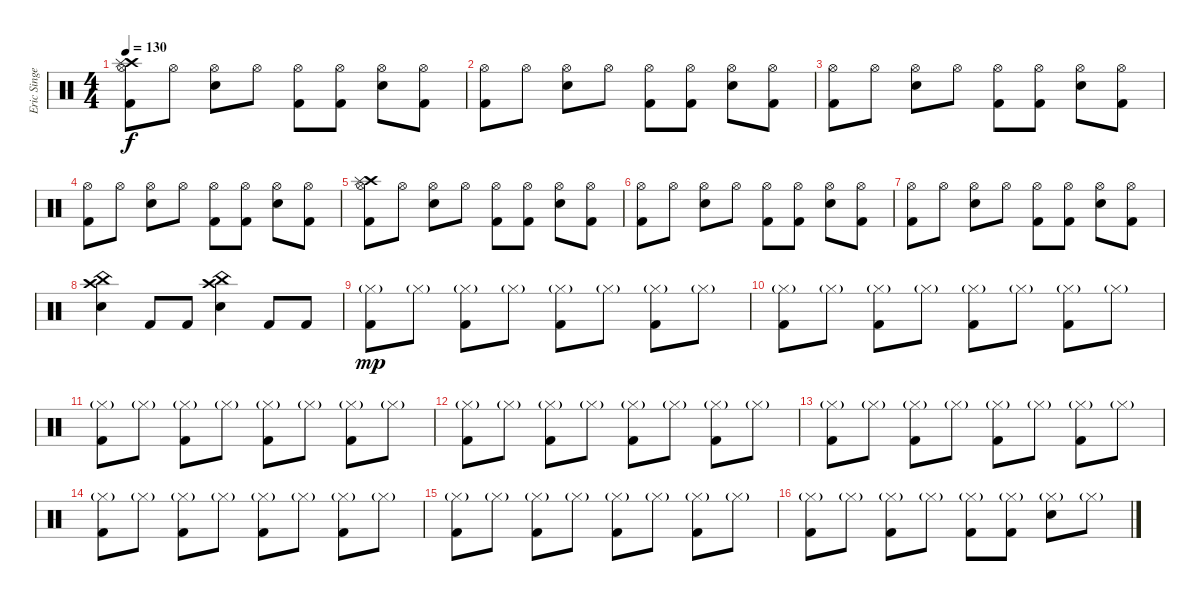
\track ("Eric Singer" "Eric Singe") {instrument percussion}
\staff {score}
\articulation defaults
\ts (4 4)
\tempo 130
\clef neutral
\ks c
("Kick (hit) 2" "Hi-Hat (open)" "Crash high (hit)" "Splash (hit)").8{dy f} "Hi-Hat (open)".8 ("Electric Snare (hit)" "Hi-Hat (open)").8 "Hi-Hat (open)".8 ("Kick (hit) 2" "Hi-Hat (open)").8 ("Kick (hit) 2" "Hi-Hat (open)").8 ("Electric Snare (hit)" "Hi-Hat (open)").8 ("Kick (hit) 2" "Hi-Hat (open)").8 |
("Kick (hit) 2" "Hi-Hat (open)").8 "Hi-Hat (open)".8 ("Electric Snare (hit)" "Hi-Hat (open)").8 "Hi-Hat (open)".8 ("Kick (hit) 2" "Hi-Hat (open)").8 ("Kick (hit) 2" "Hi-Hat (open)").8 ("Electric Snare (hit)" "Hi-Hat (open)").8 ("Kick (hit) 2" "Hi-Hat (open)").8 |
("Kick (hit) 2" "Hi-Hat (open)").8 "Hi-Hat (open)".8 ("Electric Snare (hit)" "Hi-Hat (open)").8 "Hi-Hat (open)".8 ("Kick (hit) 2" "Hi-Hat (open)").8 ("Kick (hit) 2" "Hi-Hat (open)").8 ("Electric Snare (hit)" "Hi-Hat (open)").8 ("Kick (hit) 2" "Hi-Hat (open)").8 |
("Kick (hit) 2" "Hi-Hat (open)").8 "Hi-Hat (open)".8 ("Electric Snare (hit)" "Hi-Hat (open)").8 "Hi-Hat (open)".8 ("Kick (hit) 2" "Hi-Hat (open)").8 ("Kick (hit) 2" "Hi-Hat (open)").8 ("Electric Snare (hit)" "Hi-Hat (open)").8 ("Kick (hit) 2" "Hi-Hat (open)").8 |
("Kick (hit) 2" "Hi-Hat (open)" "Crash high (hit)" "Splash (hit)").8 "Hi-Hat (open)".8 ("Electric Snare (hit)" "Hi-Hat (open)").8 "Hi-Hat (open)".8 ("Kick (hit) 2" "Hi-Hat (open)").8 ("Kick (hit) 2" "Hi-Hat (open)").8 ("Electric Snare (hit)" "Hi-Hat (open)").8 ("Kick (hit) 2" "Hi-Hat (open)").8 |
("Kick (hit) 2" "Hi-Hat (open)").8 "Hi-Hat (open)".8 ("Electric Snare (hit)" "Hi-Hat (open)").8 "Hi-Hat (open)".8 ("Kick (hit) 2" "Hi-Hat (open)").8 ("Kick (hit) 2" "Hi-Hat (open)").8 ("Electric Snare (hit)" "Hi-Hat (open)").8 ("Kick (hit) 2" "Hi-Hat (open)").8 |
("Kick (hit) 2" "Hi-Hat (open)").8 "Hi-Hat (open)".8 ("Electric Snare (hit)" "Hi-Hat (open)").8 "Hi-Hat (open)".8 ("Kick (hit) 2" "Hi-Hat (open)").8 ("Kick (hit) 2" "Hi-Hat (open)").8 ("Electric Snare (hit)" "Hi-Hat (open)").8 ("Kick (hit) 2" "Hi-Hat (open)").8 |
("Electric Snare (hit)" "Crash high (hit)" "China (hit)").4 "Kick (hit) 2".8 "Kick (hit) 2".8 ("Electric Snare (hit)" "Crash high (hit)" "China (hit)").4 "Kick (hit) 2".8 "Kick (hit) 2".8 |
("Kick (hit) 2" "Hi-Hat (closed)"{g}).8{dy mp} "Hi-Hat (closed)"{g}.8 ("Kick (hit) 2" "Hi-Hat (closed)"{g}).8 "Hi-Hat (closed)"{g}.8 ("Kick (hit) 2" "Hi-Hat (closed)"{g}).8 "Hi-Hat (closed)"{g}.8 ("Kick (hit) 2" "Hi-Hat (closed)"{g}).8 "Hi-Hat (closed)"{g}.8 |
("Kick (hit) 2" "Hi-Hat (closed)"{g}).8 "Hi-Hat (closed)"{g}.8 ("Kick (hit) 2" "Hi-Hat (closed)"{g}).8 "Hi-Hat (closed)"{g}.8 ("Kick (hit) 2" "Hi-Hat (closed)"{g}).8 "Hi-Hat (closed)"{g}.8 ("Kick (hit) 2" "Hi-Hat (closed)"{g}).8 "Hi-Hat (closed)"{g}.8 |
("Kick (hit) 2" "Hi-Hat (closed)"{g}).8 "Hi-Hat (closed)"{g}.8 ("Kick (hit) 2" "Hi-Hat (closed)"{g}).8 "Hi-Hat (closed)"{g}.8 ("Kick (hit) 2" "Hi-Hat (closed)"{g}).8 "Hi-Hat (closed)"{g}.8 ("Kick (hit) 2" "Hi-Hat (closed)"{g}).8 "Hi-Hat (closed)"{g}.8 |
("Kick (hit) 2" "Hi-Hat (closed)"{g}).8 "Hi-Hat (closed)"{g}.8 ("Kick (hit) 2" "Hi-Hat (closed)"{g}).8 "Hi-Hat (closed)"{g}.8 ("Kick (hit) 2" "Hi-Hat (closed)"{g}).8 "Hi-Hat (closed)"{g}.8 ("Kick (hit) 2" "Hi-Hat (closed)"{g}).8 "Hi-Hat (closed)"{g}.8 |
("Kick (hit) 2" "Hi-Hat (closed)"{g}).8 "Hi-Hat (closed)"{g}.8 ("Kick (hit) 2" "Hi-Hat (closed)"{g}).8 "Hi-Hat (closed)"{g}.8 ("Kick (hit) 2" "Hi-Hat (closed)"{g}).8 "Hi-Hat (closed)"{g}.8 ("Kick (hit) 2" "Hi-Hat (closed)"{g}).8 "Hi-Hat (closed)"{g}.8 |
("Kick (hit) 2" "Hi-Hat (closed)"{g}).8 "Hi-Hat (closed)"{g}.8 ("Kick (hit) 2" "Hi-Hat (closed)"{g}).8 "Hi-Hat (closed)"{g}.8 ("Kick (hit) 2" "Hi-Hat (closed)"{g}).8 "Hi-Hat (closed)"{g}.8 ("Kick (hit) 2" "Hi-Hat (closed)"{g}).8 "Hi-Hat (closed)"{g}.8 |
("Kick (hit) 2" "Hi-Hat (closed)"{g}).8 "Hi-Hat (closed)"{g}.8 ("Kick (hit) 2" "Hi-Hat (closed)"{g}).8 "Hi-Hat (closed)"{g}.8 ("Kick (hit) 2" "Hi-Hat (closed)"{g}).8 "Hi-Hat (closed)"{g}.8 ("Kick (hit) 2" "Hi-Hat (closed)"{g}).8 "Hi-Hat (closed)"{g}.8 |
("Kick (hit) 2" "Hi-Hat (closed)"{g}).8 "Hi-Hat (closed)"{g}.8 ("Kick (hit) 2" "Hi-Hat (closed)"{g}).8 "Hi-Hat (closed)"{g}.8 ("Kick (hit) 2" "Hi-Hat (closed)"{g}).8 ("Kick (hit) 2" "Hi-Hat (closed)"{g}).8 ("Electric Snare (hit)" "Hi-Hat (closed)"{g}).8 "Hi-Hat (closed)"{g}.8
